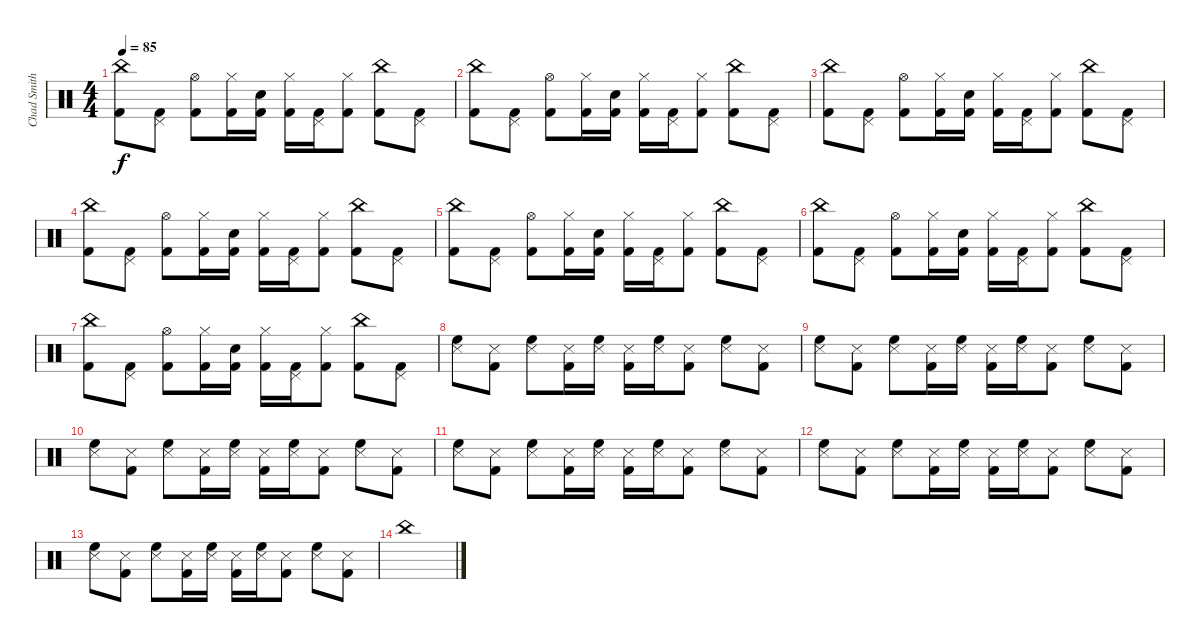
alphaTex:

\track ("Chad Smith - Drums" "Chad Smith") {instrument percussion}
\staff {score}
\articulation defaults
\ts (4 4)
\tempo 85
\clef neutral
\ks c
("China (hit)" "Kick (hit) 2").8{dy f} ("Pedal Hi-Hat (hit)" "Kick (hit) 2").8 ("Hi-Hat (open)" "Kick (hit) 2").8 ("Hi-Hat (closed)" "Kick (hit) 2").16 ("Electric Snare (hit)" "Kick (hit) 2").16 ("Hi-Hat (closed)" "Kick (hit) 2").16 ("Pedal Hi-Hat (hit)" "Kick (hit) 2").16 ("Hi-Hat (closed)" "Kick (hit) 2").8 ("China (hit)" "Kick (hit) 2").8 ("Pedal Hi-Hat (hit)" "Kick (hit) 2").8 |
("China (hit)" "Kick (hit) 2").8 ("Pedal Hi-Hat (hit)" "Kick (hit) 2").8 ("Hi-Hat (open)" "Kick (hit) 2").8 ("Hi-Hat (closed)" "Kick (hit) 2").16 ("Electric Snare (hit)" "Kick (hit) 2").16 ("Hi-Hat (closed)" "Kick (hit) 2").16 ("Pedal Hi-Hat (hit)" "Kick (hit) 2").16 ("Hi-Hat (closed)" "Kick (hit) 2").8 ("China (hit)" "Kick (hit) 2").8 ("Pedal Hi-Hat (hit)" "Kick (hit) 2").8 |
("China (hit)" "Kick (hit) 2").8 ("Pedal Hi-Hat (hit)" "Kick (hit) 2").8 ("Hi-Hat (open)" "Kick (hit) 2").8 ("Hi-Hat (closed)" "Kick (hit) 2").16 ("Electric Snare (hit)" "Kick (hit) 2").16 ("Hi-Hat (closed)" "Kick (hit) 2").16 ("Pedal Hi-Hat (hit)" "Kick (hit) 2").16 ("Hi-Hat (closed)" "Kick (hit) 2").8 ("China (hit)" "Kick (hit) 2").8 ("Pedal Hi-Hat (hit)" "Kick (hit) 2").8 |
("China (hit)" "Kick (hit) 2").8 ("Pedal Hi-Hat (hit)" "Kick (hit) 2").8 ("Hi-Hat (open)" "Kick (hit) 2").8 ("Hi-Hat (closed)" "Kick (hit) 2").16 ("Electric Snare (hit)" "Kick (hit) 2").16 ("Hi-Hat (closed)" "Kick (hit) 2").16 ("Pedal Hi-Hat (hit)" "Kick (hit) 2").16 ("Hi-Hat (closed)" "Kick (hit) 2").8 ("China (hit)" "Kick (hit) 2").8 ("Pedal Hi-Hat (hit)" "Kick (hit) 2").8 |
("China (hit)" "Kick (hit) 2").8 ("Pedal Hi-Hat (hit)" "Kick (hit) 2").8 ("Hi-Hat (open)" "Kick (hit) 2").8 ("Hi-Hat (closed)" "Kick (hit) 2").16 ("Electric Snare (hit)" "Kick (hit) 2").16 ("Hi-Hat (closed)" "Kick (hit) 2").16 ("Pedal Hi-Hat (hit)" "Kick (hit) 2").16 ("Hi-Hat (closed)" "Kick (hit) 2").8 ("China (hit)" "Kick (hit) 2").8 ("Pedal Hi-Hat (hit)" "Kick (hit) 2").8 |
("China (hit)" "Kick (hit) 2").8 ("Pedal Hi-Hat (hit)" "Kick (hit) 2").8 ("Hi-Hat (open)" "Kick (hit) 2").8 ("Hi-Hat (closed)" "Kick (hit) 2").16 ("Electric Snare (hit)" "Kick (hit) 2").16 ("Hi-Hat (closed)" "Kick (hit) 2").16 ("Pedal Hi-Hat (hit)" "Kick (hit) 2").16 ("Hi-Hat (closed)" "Kick (hit) 2").8 ("China (hit)" "Kick (hit) 2").8 ("Pedal Hi-Hat (hit)" "Kick (hit) 2").8 |
("China (hit)" "Kick (hit) 2").8 ("Pedal Hi-Hat (hit)" "Kick (hit) 2").8 ("Hi-Hat (open)" "Kick (hit) 2").8 ("Hi-Hat (closed)" "Kick (hit) 2").16 ("Electric Snare (hit)" "Kick (hit) 2").16 ("Hi-Hat (closed)" "Kick (hit) 2").16 ("Pedal Hi-Hat (hit)" "Kick (hit) 2").16 ("Hi-Hat (closed)" "Kick (hit) 2").8 ("China (hit)" "Kick (hit) 2").8 ("Pedal Hi-Hat (hit)" "Kick (hit) 2").8 |
("Snare (side stick) 3" "High Floor Tom (hit)").8 ("Snare (side stick) 3" "Kick (hit) 2").8 ("Snare (side stick) 3" "High Floor Tom (hit)").8 ("Snare (side stick) 3" "Kick (hit) 2").16 ("Snare (side stick) 3" "High Floor Tom (hit)").16 ("Snare (side stick) 3" "Kick (hit) 2").16 ("Snare (side stick) 3" "High Floor Tom (hit)").16 ("Snare (side stick) 3" "Kick (hit) 2").8 ("Snare (side stick) 3" "High Floor Tom (hit)").8 ("Snare (side stick) 3" "Kick (hit) 2").8 |
("Snare (side stick) 3" "High Floor Tom (hit)").8 ("Snare (side stick) 3" "Kick (hit) 2").8 ("Snare (side stick) 3" "High Floor Tom (hit)").8 ("Snare (side stick) 3" "Kick (hit) 2").16 ("Snare (side stick) 3" "High Floor Tom (hit)").16 ("Snare (side stick) 3" "Kick (hit) 2").16 ("Snare (side stick) 3" "High Floor Tom (hit)").16 ("Snare (side stick) 3" "Kick (hit) 2").8 ("Snare (side stick) 3" "High Floor Tom (hit)").8 ("Snare (side stick) 3" "Kick (hit) 2").8 |
("Snare (side stick) 3" "High Floor Tom (hit)").8 ("Snare (side stick) 3" "Kick (hit) 2").8 ("Snare (side stick) 3" "High Floor Tom (hit)").8 ("Snare (side stick) 3" "Kick (hit) 2").16 ("Snare (side stick) 3" "High Floor Tom (hit)").16 ("Snare (side stick) 3" "Kick (hit) 2").16 ("Snare (side stick) 3" "High Floor Tom (hit)").16 ("Snare (side stick) 3" "Kick (hit) 2").8 ("Snare (side stick) 3" "High Floor Tom (hit)").8 ("Snare (side stick) 3" "Kick (hit) 2").8 |
("Snare (side stick) 3" "High Floor Tom (hit)").8 ("Snare (side stick) 3" "Kick (hit) 2").8 ("Snare (side stick) 3" "High Floor Tom (hit)").8 ("Snare (side stick) 3" "Kick (hit) 2").16 ("Snare (side stick) 3" "High Floor Tom (hit)").16 ("Snare (side stick) 3" "Kick (hit) 2").16 ("Snare (side stick) 3" "High Floor Tom (hit)").16 ("Snare (side stick) 3" "Kick (hit) 2").8 ("Snare (side stick) 3" "High Floor Tom (hit)").8 ("Snare (side stick) 3" "Kick (hit) 2").8 |
("Snare (side stick) 3" "High Floor Tom (hit)").8 ("Snare (side stick) 3" "Kick (hit) 2").8 ("Snare (side stick) 3" "High Floor Tom (hit)").8 ("Snare (side stick) 3" "Kick (hit) 2").16 ("Snare (side stick) 3" "High Floor Tom (hit)").16 ("Snare (side stick) 3" "Kick (hit) 2").16 ("Snare (side stick) 3" "High Floor Tom (hit)").16 ("Snare (side stick) 3" "Kick (hit) 2").8 ("Snare (side stick) 3" "High Floor Tom (hit)").8 ("Snare (side stick) 3" "Kick (hit) 2").8 |
("Snare (side stick) 3" "High Floor Tom (hit)").8 ("Snare (side stick) 3" "Kick (hit) 2").8 ("Snare (side stick) 3" "High Floor Tom (hit)").8 ("Snare (side stick) 3" "Kick (hit) 2").16 ("Snare (side stick) 3" "High Floor Tom (hit)").16 ("Snare (side stick) 3" "Kick (hit) 2").16 ("Snare (side stick) 3" "High Floor Tom (hit)").16 ("Snare (side stick) 3" "Kick (hit) 2").8 ("Snare (side stick) 3" "High Floor Tom (hit)").8 ("Snare (side stick) 3" "Kick (hit) 2").8 |
"China (hit)".1
